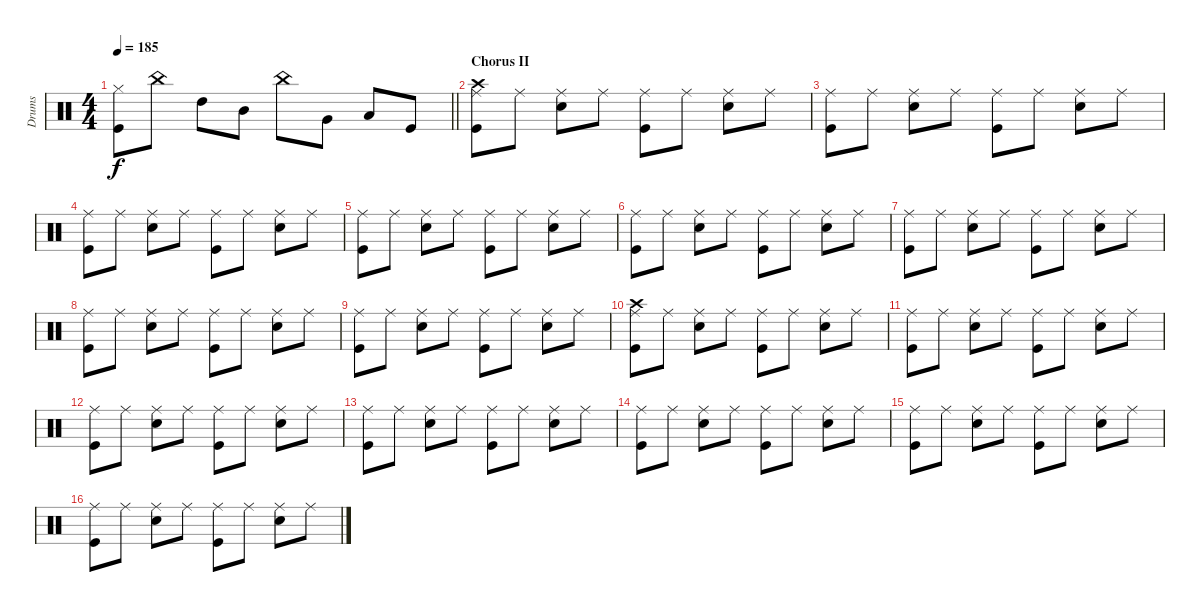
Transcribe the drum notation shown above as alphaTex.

\track ("Drums" "Drums") {instrument percussion}
\staff {score}
\articulation defaults
\ts (4 4)
\tempo 185
\clef neutral
\barLineRight lightlight
\ks c
("Kick (hit)" "Hi-Hat (closed)").8{dy f} "China (hit)".8 "High Tom (hit)".8 "Mid Tom (hit)".8 "China (hit)".8 "Very Low Tom (hit)".8 "Low Floor Tom (hit)".8 "Kick (hit)".8 |
\section ("" "Chorus II")
("Crash high (hit)" "Ride (middle)" "Kick (hit)").8 "Ride (middle)".8 ("Ride (middle)" "Snare (hit) 2").8 "Ride (middle)".8 ("Ride (middle)" "Kick (hit)").8 "Ride (middle)".8 ("Ride (middle)" "Snare (hit) 2").8 "Ride (middle)".8 |
("Ride (middle)" "Kick (hit)").8 "Ride (middle)".8 ("Ride (middle)" "Snare (hit) 2").8 "Ride (middle)".8 ("Ride (middle)" "Kick (hit)").8 "Ride (middle)".8 ("Ride (middle)" "Snare (hit) 2").8 "Ride (middle)".8 |
("Ride (middle)" "Kick (hit)").8 "Ride (middle)".8 ("Ride (middle)" "Snare (hit) 2").8 "Ride (middle)".8 ("Ride (middle)" "Kick (hit)").8 "Ride (middle)".8 ("Ride (middle)" "Snare (hit) 2").8 "Ride (middle)".8 |
("Ride (middle)" "Kick (hit)").8 "Ride (middle)".8 ("Ride (middle)" "Snare (hit) 2").8 "Ride (middle)".8 ("Ride (middle)" "Kick (hit)").8 "Ride (middle)".8 ("Ride (middle)" "Snare (hit) 2").8 "Ride (middle)".8 |
("Ride (middle)" "Kick (hit)").8 "Ride (middle)".8 ("Ride (middle)" "Snare (hit) 2").8 "Ride (middle)".8 ("Ride (middle)" "Kick (hit)").8 "Ride (middle)".8 ("Ride (middle)" "Snare (hit) 2").8 "Ride (middle)".8 |
("Ride (middle)" "Kick (hit)").8 "Ride (middle)".8 ("Ride (middle)" "Snare (hit) 2").8 "Ride (middle)".8 ("Ride (middle)" "Kick (hit)").8 "Ride (middle)".8 ("Ride (middle)" "Snare (hit) 2").8 "Ride (middle)".8 |
("Ride (middle)" "Kick (hit)").8 "Ride (middle)".8 ("Ride (middle)" "Snare (hit) 2").8 "Ride (middle)".8 ("Ride (middle)" "Kick (hit)").8 "Ride (middle)".8 ("Ride (middle)" "Snare (hit) 2").8 "Ride (middle)".8 |
("Ride (middle)" "Kick (hit)").8 "Ride (middle)".8 ("Ride (middle)" "Snare (hit) 2").8 "Ride (middle)".8 ("Ride (middle)" "Kick (hit)").8 "Ride (middle)".8 ("Ride (middle)" "Snare (hit) 2").8 "Ride (middle)".8 |
("Crash high (hit)" "Ride (middle)" "Kick (hit)").8 "Ride (middle)".8 ("Ride (middle)" "Snare (hit) 2").8 "Ride (middle)".8 ("Ride (middle)" "Kick (hit)").8 "Ride (middle)".8 ("Ride (middle)" "Snare (hit) 2").8 "Ride (middle)".8 |
("Ride (middle)" "Kick (hit)").8 "Ride (middle)".8 ("Ride (middle)" "Snare (hit) 2").8 "Ride (middle)".8 ("Ride (middle)" "Kick (hit)").8 "Ride (middle)".8 ("Ride (middle)" "Snare (hit) 2").8 "Ride (middle)".8 |
("Ride (middle)" "Kick (hit)").8 "Ride (middle)".8 ("Ride (middle)" "Snare (hit) 2").8 "Ride (middle)".8 ("Ride (middle)" "Kick (hit)").8 "Ride (middle)".8 ("Ride (middle)" "Snare (hit) 2").8 "Ride (middle)".8 |
("Ride (middle)" "Kick (hit)").8 "Ride (middle)".8 ("Ride (middle)" "Snare (hit) 2").8 "Ride (middle)".8 ("Ride (middle)" "Kick (hit)").8 "Ride (middle)".8 ("Ride (middle)" "Snare (hit) 2").8 "Ride (middle)".8 |
("Ride (middle)" "Kick (hit)").8 "Ride (middle)".8 ("Ride (middle)" "Snare (hit) 2").8 "Ride (middle)".8 ("Ride (middle)" "Kick (hit)").8 "Ride (middle)".8 ("Ride (middle)" "Snare (hit) 2").8 "Ride (middle)".8 |
("Ride (middle)" "Kick (hit)").8 "Ride (middle)".8 ("Ride (middle)" "Snare (hit) 2").8 "Ride (middle)".8 ("Ride (middle)" "Kick (hit)").8 "Ride (middle)".8 ("Ride (middle)" "Snare (hit) 2").8 "Ride (middle)".8 |
("Ride (middle)" "Kick (hit)").8 "Ride (middle)".8 ("Ride (middle)" "Snare (hit) 2").8 "Ride (middle)".8 ("Ride (middle)" "Kick (hit)").8 "Ride (middle)".8 ("Ride (middle)" "Snare (hit) 2").8 "Ride (middle)".8
